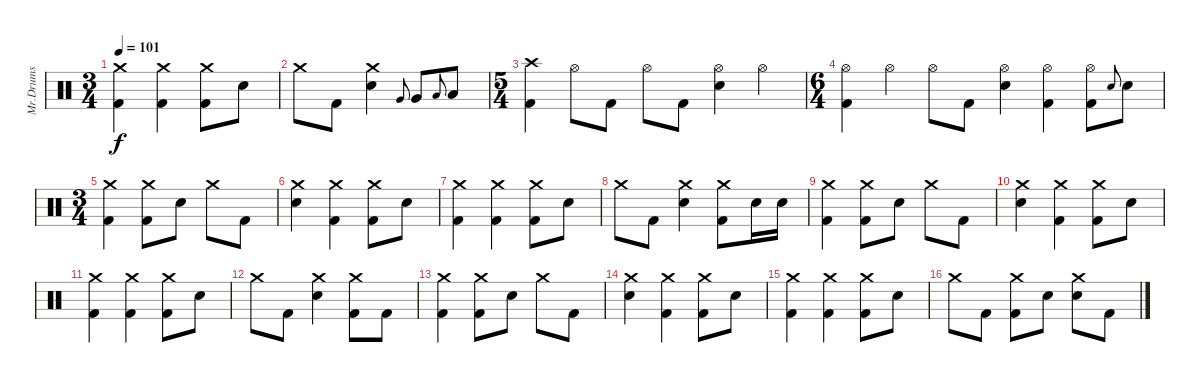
\track ("Mr.Drums" "Mr.Drums") {instrument percussion}
\staff {score}
\articulation defaults
\ts (3 4)
\tempo 101
\clef neutral
\ks c
("Crash medium (hit)" "Kick (hit) 2").4{dy f} ("Crash medium (hit)" "Kick (hit) 2").4 ("Crash medium (hit)" "Kick (hit) 2").8 "Electric Snare (hit)".8 |
"Crash medium (hit)".8 "Kick (hit) 2".8 ("Crash medium (hit)" "Electric Snare (hit)").4 "Very Low Tom (hit)".8{gr onbeat} "Very Low Tom (hit)".8 "Low Floor Tom (hit)".8{gr onbeat} "Low Floor Tom (hit)".8 |
\ts (5 4)
("Crash high (hit)" "Kick (hit) 2").4 "Hi-Hat (open)".8 "Kick (hit) 2".8 "Hi-Hat (open)".8 "Kick (hit) 2".8 ("Hi-Hat (open)" "Electric Snare (hit)").4 "Hi-Hat (open)".4 |
\ts (6 4)
("Hi-Hat (open)" "Kick (hit) 2").4 "Hi-Hat (open)".4 "Hi-Hat (open)".8 "Kick (hit) 2".8 ("Hi-Hat (open)" "Electric Snare (hit)").4 ("Hi-Hat (open)" "Kick (hit) 2").4 ("Hi-Hat (open)" "Kick (hit) 2").8 "Electric Snare (hit)".8{gr onbeat} "Electric Snare (hit)".8 |
\ts (3 4)
("Crash medium (hit)" "Kick (hit) 2").4 ("Crash medium (hit)" "Kick (hit) 2").8 "Electric Snare (hit)".8 "Crash medium (hit)".8 "Kick (hit) 2".8 |
("Crash medium (hit)" "Electric Snare (hit)").4 ("Crash medium (hit)" "Kick (hit) 2").4 ("Crash medium (hit)" "Kick (hit) 2").8 "Electric Snare (hit)".8 |
("Crash medium (hit)" "Kick (hit) 2").4 ("Crash medium (hit)" "Kick (hit) 2").4 ("Crash medium (hit)" "Kick (hit) 2").8 "Electric Snare (hit)".8 |
"Crash medium (hit)".8 "Kick (hit) 2".8 ("Crash medium (hit)" "Electric Snare (hit)").4 ("Crash medium (hit)" "Kick (hit) 2").8 "Electric Snare (hit)".16 "Electric Snare (hit)".16 |
("Crash medium (hit)" "Kick (hit) 2").4 ("Crash medium (hit)" "Kick (hit) 2").8 "Electric Snare (hit)".8 "Crash medium (hit)".8 "Kick (hit) 2".8 |
("Crash medium (hit)" "Electric Snare (hit)").4 ("Crash medium (hit)" "Kick (hit) 2").4 ("Crash medium (hit)" "Kick (hit) 2").8 "Electric Snare (hit)".8 |
("Crash medium (hit)" "Kick (hit) 2").4 ("Crash medium (hit)" "Kick (hit) 2").4 ("Crash medium (hit)" "Kick (hit) 2").8 "Electric Snare (hit)".8 |
"Crash medium (hit)".8 "Kick (hit) 2".8 ("Crash medium (hit)" "Electric Snare (hit)").4 ("Crash medium (hit)" "Kick (hit) 2").8 "Kick (hit) 2".8 |
("Crash medium (hit)" "Kick (hit) 2").4 ("Crash medium (hit)" "Kick (hit) 2").8 "Electric Snare (hit)".8 "Crash medium (hit)".8 "Kick (hit) 2".8 |
("Crash medium (hit)" "Electric Snare (hit)").4 ("Crash medium (hit)" "Kick (hit) 2").4 ("Crash medium (hit)" "Kick (hit) 2").8 "Electric Snare (hit)".8 |
("Crash medium (hit)" "Kick (hit) 2").4 ("Crash medium (hit)" "Kick (hit) 2").4 ("Crash medium (hit)" "Kick (hit) 2").8 "Electric Snare (hit)".8 |
"Crash medium (hit)".8 "Kick (hit) 2".8 ("Crash medium (hit)" "Kick (hit) 2").8 "Electric Snare (hit)".8 ("Crash medium (hit)" "Electric Snare (hit)").8 "Kick (hit) 2".8
